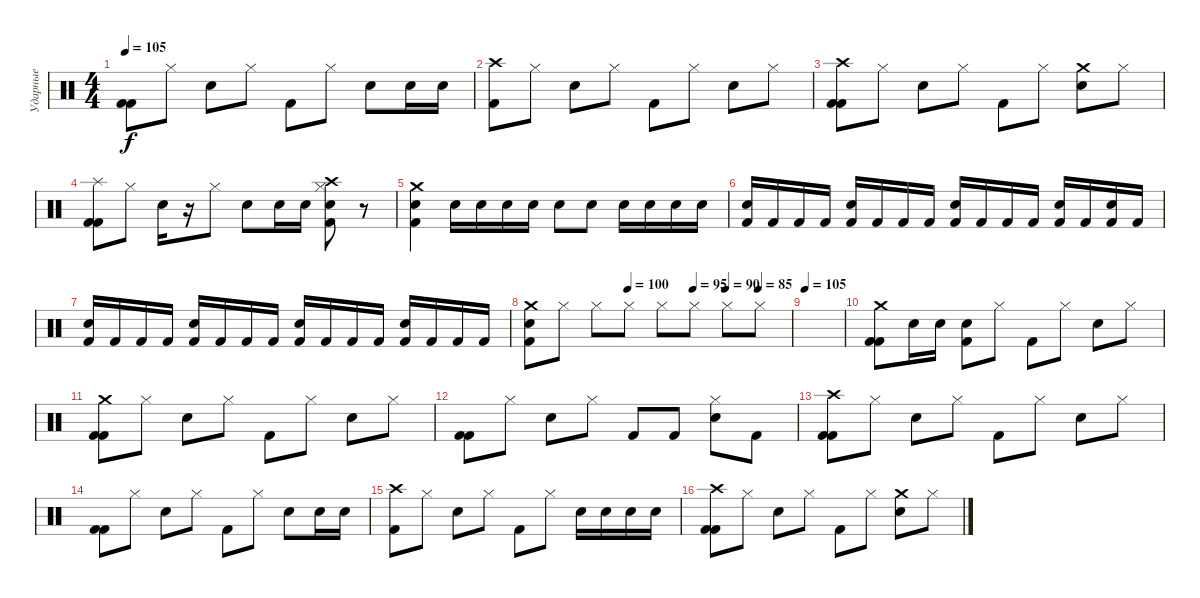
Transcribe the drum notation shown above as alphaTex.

\track ("Ударные" "Ударные") {instrument percussion}
\staff {score}
\articulation defaults
\ts (4 4)
\tempo 105
\clef neutral
\ks c
("Kick (hit) 2" "Kick (hit) 2").8{dy f} "Hi-Hat (closed)".8 "Snare (hit) 2".8 "Hi-Hat (closed)".8 "Kick (hit) 2".8 "Hi-Hat (closed)".8 "Snare (hit) 2".8 "Snare (hit) 2".16 "Snare (hit) 2".16 |
("Kick (hit) 2" "Crash high (hit)").8 "Hi-Hat (closed)".8 "Snare (hit) 2".8 "Hi-Hat (closed)".8 "Kick (hit) 2".8 "Hi-Hat (closed)".8 "Snare (hit) 2".8 "Hi-Hat (closed)".8 |
("Crash high (hit)" "Kick (hit) 2" "Kick (hit) 2").8 "Hi-Hat (closed)".8 "Snare (hit) 2".8 "Hi-Hat (closed)".8 "Kick (hit) 2".8 "Hi-Hat (closed)".8 ("Crash medium (hit)" "Snare (hit) 2").8 "Hi-Hat (closed)".8 |
("Splash (hit)" "Kick (hit) 2" "Kick (hit) 2").8 "Hi-Hat (closed)".8 "Snare (hit) 2".16 r.16 "Hi-Hat (closed)".8 "Snare (hit) 2".8 "Snare (hit) 2".16 "Snare (hit) 2".16 ("Crash high (hit)" "Snare (hit) 2" "Hi-Hat (closed)" "Kick (hit) 2").8 r.8 |
("Crash medium (hit)" "Snare (hit) 2" "Kick (hit) 2").4 "Snare (hit) 2".16 "Snare (hit) 2".16 "Snare (hit) 2".16 "Snare (hit) 2".16 "Snare (hit) 2".8 "Snare (hit) 2".8 "Snare (hit) 2".16 "Snare (hit) 2".16 "Snare (hit) 2".16 "Snare (hit) 2".16 |
("Snare (hit) 2" "Kick (hit) 2").16 "Kick (hit) 2".16 "Kick (hit) 2".16 "Kick (hit) 2".16 ("Snare (hit) 2" "Kick (hit) 2").16 "Kick (hit) 2".16 "Kick (hit) 2".16 "Kick (hit) 2".16 ("Snare (hit) 2" "Kick (hit) 2").16 "Kick (hit) 2".16 "Kick (hit) 2".16 "Kick (hit) 2".16 ("Snare (hit) 2" "Kick (hit) 2").16 "Kick (hit) 2".16 ("Snare (hit) 2" "Kick (hit) 2").16 "Kick (hit) 2".16 |
("Snare (hit) 2" "Kick (hit) 2").16 "Kick (hit) 2".16 "Kick (hit) 2".16 "Kick (hit) 2".16 ("Snare (hit) 2" "Kick (hit) 2").16 "Kick (hit) 2".16 "Kick (hit) 2".16 "Kick (hit) 2".16 ("Snare (hit) 2" "Kick (hit) 2").16 "Kick (hit) 2".16 "Kick (hit) 2".16 "Kick (hit) 2".16 ("Snare (hit) 2" "Kick (hit) 2").16 "Kick (hit) 2".16 "Kick (hit) 2".16 "Kick (hit) 2".16 |
\tempo (100 0.375)
\tempo (95 0.625)
\tempo (90 0.75)
\tempo (85 0.875)
("Crash medium (hit)" "Snare (hit) 2" "Kick (hit) 2").8 "Hi-Hat (closed)".8 "Hi-Hat (closed)".8 "Hi-Hat (closed)".8 "Hi-Hat (closed)".8 "Hi-Hat (closed)".8 "Hi-Hat (closed)".8 "Hi-Hat (closed)".8 |
\tempo 105
|
("Crash medium (hit)" "Kick (hit) 2" "Kick (hit) 2").8 "Electric Snare (hit)".16 "Electric Snare (hit)".16 ("Kick (hit) 2" "Snare (hit) 2").8 "Hi-Hat (closed)".8 "Kick (hit) 2".8 "Hi-Hat (closed)".8 "Snare (hit) 2".8 "Hi-Hat (closed)".8 |
("Crash medium (hit)" "Kick (hit) 2" "Kick (hit) 2").8 "Hi-Hat (closed)".8 "Snare (hit) 2".8 "Hi-Hat (closed)".8 "Kick (hit) 2".8 "Hi-Hat (closed)".8 "Snare (hit) 2".8 "Hi-Hat (closed)".8 |
("Kick (hit) 2" "Kick (hit) 2").8 "Hi-Hat (closed)".8 "Snare (hit) 2".8 "Hi-Hat (closed)".8 "Kick (hit) 2".8 "Kick (hit) 2".8 ("Hi-Hat (closed)" "Snare (hit) 2").8 "Kick (hit) 2".8 |
("Crash high (hit)" "Kick (hit) 2" "Kick (hit) 2").8 "Hi-Hat (closed)".8 "Snare (hit) 2".8 "Hi-Hat (closed)".8 "Kick (hit) 2".8 "Hi-Hat (closed)".8 "Snare (hit) 2".8 "Hi-Hat (closed)".8 |
("Kick (hit) 2" "Kick (hit) 2").8 "Hi-Hat (closed)".8 "Snare (hit) 2".8 "Hi-Hat (closed)".8 "Kick (hit) 2".8 "Hi-Hat (closed)".8 "Snare (hit) 2".8 "Snare (hit) 2".16 "Snare (hit) 2".16 |
("Kick (hit) 2" "Crash high (hit)").8 "Hi-Hat (closed)".8 "Snare (hit) 2".8 "Hi-Hat (closed)".8 "Kick (hit) 2".8 "Hi-Hat (closed)".8 "Snare (hit) 2".16 "Snare (hit) 2".16 "Snare (hit) 2".16 "Snare (hit) 2".16 |
("Crash high (hit)" "Kick (hit) 2" "Kick (hit) 2").8 "Hi-Hat (closed)".8 "Snare (hit) 2".8 "Hi-Hat (closed)".8 "Kick (hit) 2".8 "Hi-Hat (closed)".8 ("Crash medium (hit)" "Snare (hit) 2").8 "Hi-Hat (closed)".8
